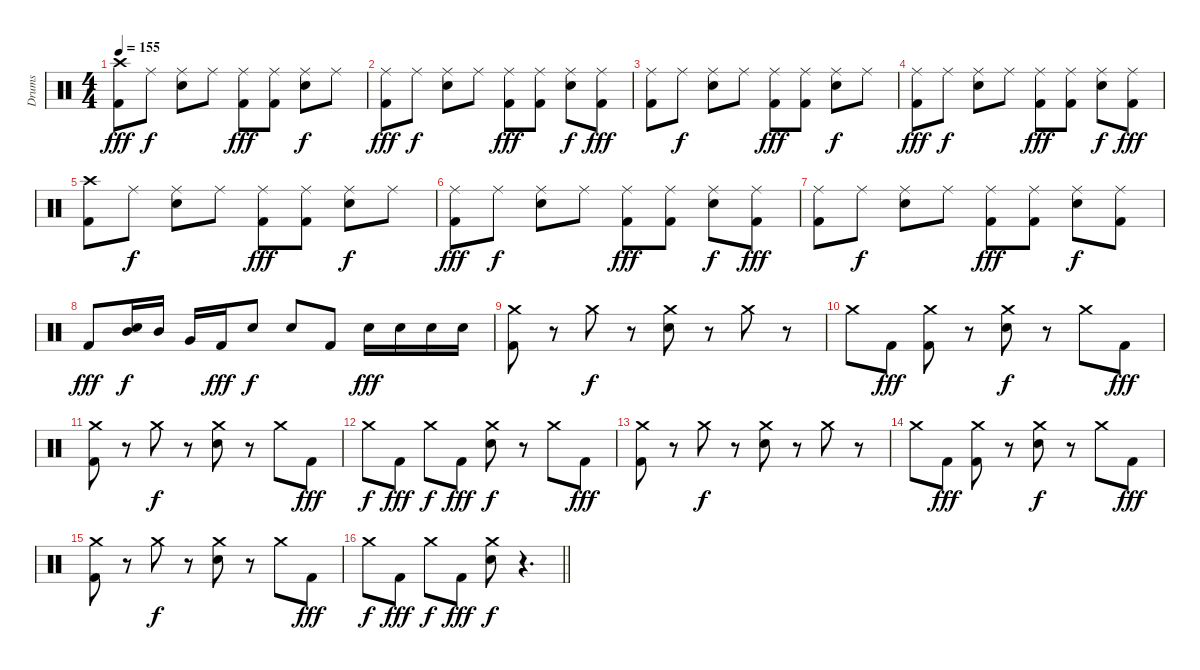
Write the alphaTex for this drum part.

\track ("Drums" "Drums") {instrument percussion}
\staff {score}
\articulation defaults
\ts (4 4)
\tempo 155
\clef neutral
\ks c
("Crash high (hit)" "Kick (hit) 2").8{dy fff} "Ride (middle)".8{dy f} ("Ride (middle)" "Electric Snare (hit)").8 "Ride (middle)".8 ("Ride (middle)" "Kick (hit) 2").8{dy fff} ("Ride (middle)" "Kick (hit) 2").8 ("Ride (middle)" "Electric Snare (hit)").8{dy f} "Ride (middle)".8 |
("Ride (middle)" "Kick (hit) 2").8{dy fff} "Ride (middle)".8{dy f} ("Ride (middle)" "Electric Snare (hit)").8 "Ride (middle)".8 ("Ride (middle)" "Kick (hit) 2").8{dy fff} ("Ride (middle)" "Kick (hit) 2").8 ("Ride (middle)" "Electric Snare (hit)").8{dy f} ("Ride (middle)" "Kick (hit) 2").8{dy fff} |
("Ride (middle)" "Kick (hit) 2").8 "Ride (middle)".8{dy f} ("Ride (middle)" "Electric Snare (hit)").8 "Ride (middle)".8 ("Ride (middle)" "Kick (hit) 2").8{dy fff} ("Ride (middle)" "Kick (hit) 2").8 ("Ride (middle)" "Electric Snare (hit)").8{dy f} "Ride (middle)".8 |
("Ride (middle)" "Kick (hit) 2").8{dy fff} "Ride (middle)".8{dy f} ("Ride (middle)" "Electric Snare (hit)").8 "Ride (middle)".8 ("Ride (middle)" "Kick (hit) 2").8{dy fff} ("Ride (middle)" "Kick (hit) 2").8 ("Ride (middle)" "Electric Snare (hit)").8{dy f} ("Ride (middle)" "Kick (hit) 2").8{dy fff} |
("Crash high (hit)" "Kick (hit) 2").8 "Ride (middle)".8{dy f} ("Ride (middle)" "Electric Snare (hit)").8 "Ride (middle)".8 ("Ride (middle)" "Kick (hit) 2").8{dy fff} ("Ride (middle)" "Kick (hit) 2").8 ("Ride (middle)" "Electric Snare (hit)").8{dy f} "Ride (middle)".8 |
("Ride (middle)" "Kick (hit) 2").8{dy fff} "Ride (middle)".8{dy f} ("Ride (middle)" "Electric Snare (hit)").8 "Ride (middle)".8 ("Ride (middle)" "Kick (hit) 2").8{dy fff} ("Ride (middle)" "Kick (hit) 2").8 ("Ride (middle)" "Electric Snare (hit)").8{dy f} ("Ride (middle)" "Kick (hit) 2").8{dy fff} |
("Ride (middle)" "Kick (hit) 2").8 "Ride (middle)".8{dy f} ("Ride (middle)" "Electric Snare (hit)").8 "Ride (middle)".8 ("Ride (middle)" "Kick (hit) 2").8{dy fff} ("Ride (middle)" "Kick (hit) 2").8 ("Ride (middle)" "Electric Snare (hit)").8{dy f} ("Ride (middle)" "Kick (hit) 2").8 |
"Kick (hit) 2".8{dy fff} ("Mid Tom (hit)" "Electric Snare (hit)").16{dy f} "Mid Tom (hit)".16 "Very Low Tom (hit)".16 "Kick (hit) 2".16{dy fff} "Electric Snare (hit)".8{dy f} "Electric Snare (hit)".8 "Kick (hit) 2".8 "Electric Snare (hit)".16{dy fff} "Electric Snare (hit)".16 "Electric Snare (hit)".16 "Electric Snare (hit)".16 |
("Crash medium (hit)" "Kick (hit) 2").8 r.8 "Crash medium (hit)".8{dy f} r.8 ("Crash medium (hit)" "Electric Snare (hit)").8 r.8 "Crash medium (hit)".8 r.8 |
"Crash medium (hit)".8 "Kick (hit) 2".8{dy fff} ("Crash medium (hit)" "Kick (hit) 2").8 r.8 ("Crash medium (hit)" "Electric Snare (hit)").8{dy f} r.8 "Crash medium (hit)".8 "Kick (hit) 2".8{dy fff} |
("Crash medium (hit)" "Kick (hit) 2").8 r.8 "Crash medium (hit)".8{dy f} r.8 ("Crash medium (hit)" "Electric Snare (hit)").8 r.8 "Crash medium (hit)".8 "Kick (hit) 2".8{dy fff} |
"Crash medium (hit)".8{dy f} "Kick (hit) 2".8{dy fff} "Crash medium (hit)".8{dy f} "Kick (hit) 2".8{dy fff} ("Crash medium (hit)" "Electric Snare (hit)").8{dy f} r.8 "Crash medium (hit)".8 "Kick (hit) 2".8{dy fff} |
("Crash medium (hit)" "Kick (hit) 2").8 r.8 "Crash medium (hit)".8{dy f} r.8 ("Crash medium (hit)" "Electric Snare (hit)").8 r.8 "Crash medium (hit)".8 r.8 |
"Crash medium (hit)".8 "Kick (hit) 2".8{dy fff} ("Crash medium (hit)" "Kick (hit) 2").8 r.8 ("Crash medium (hit)" "Electric Snare (hit)").8{dy f} r.8 "Crash medium (hit)".8 "Kick (hit) 2".8{dy fff} |
("Crash medium (hit)" "Kick (hit) 2").8 r.8 "Crash medium (hit)".8{dy f} r.8 ("Crash medium (hit)" "Electric Snare (hit)").8 r.8 "Crash medium (hit)".8 "Kick (hit) 2".8{dy fff} |
\barLineRight lightlight "Crash medium (hit)".8{dy f} "Kick (hit) 2".8{dy fff} "Crash medium (hit)".8{dy f} "Kick (hit) 2".8{dy fff}
("Crash medium (hit)" "Electric Snare (hit)").8{dy f} r.4{d}
